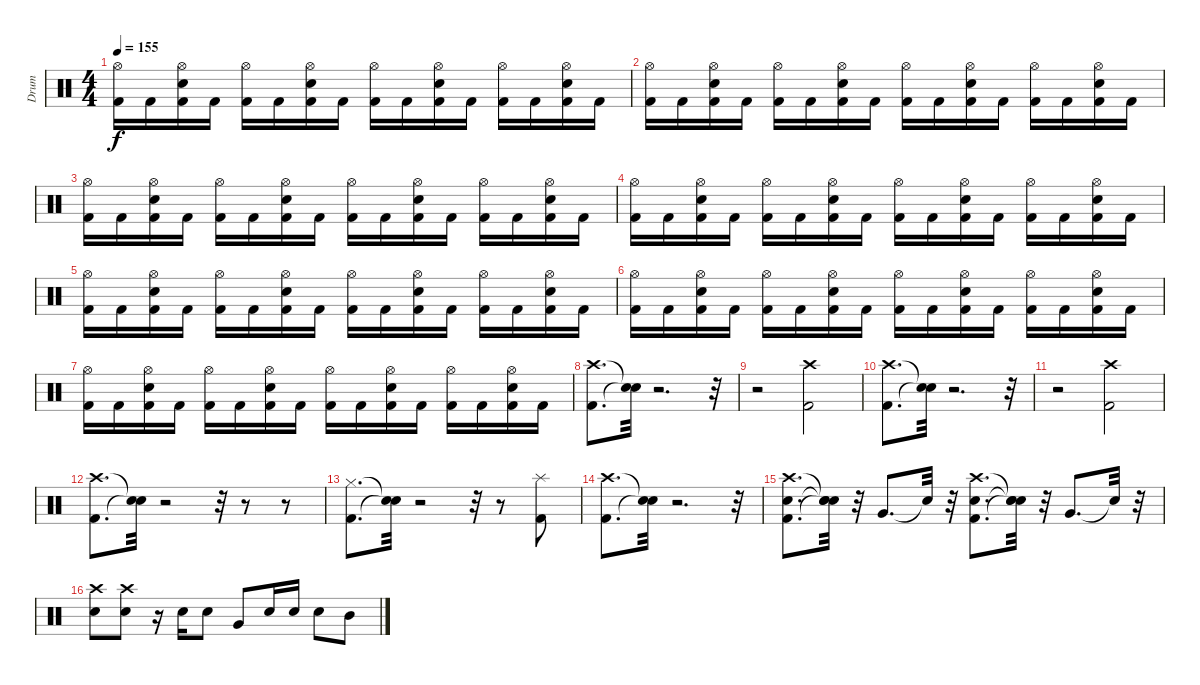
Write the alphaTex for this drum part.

\track ("Drum" "Drum") {instrument percussion}
\staff {score}
\articulation defaults
\ts (4 4)
\tempo 155
\clef neutral
\ks c
("Kick (hit) 2" "Hi-Hat (open)").16{dy f} "Kick (hit) 2".16 ("Kick (hit) 2" "Snare (hit) 2" "Hi-Hat (open)").16 "Kick (hit) 2".16 ("Kick (hit) 2" "Hi-Hat (open)").16 "Kick (hit) 2".16 ("Kick (hit) 2" "Snare (hit) 2" "Hi-Hat (open)").16 "Kick (hit) 2".16 ("Kick (hit) 2" "Hi-Hat (open)").16 "Kick (hit) 2".16 ("Kick (hit) 2" "Snare (hit) 2" "Hi-Hat (open)").16 "Kick (hit) 2".16 ("Kick (hit) 2" "Hi-Hat (open)").16 "Kick (hit) 2".16 ("Kick (hit) 2" "Snare (hit) 2" "Hi-Hat (open)").16 "Kick (hit) 2".16 |
("Kick (hit) 2" "Hi-Hat (open)").16 "Kick (hit) 2".16 ("Kick (hit) 2" "Snare (hit) 2" "Hi-Hat (open)").16 "Kick (hit) 2".16 ("Kick (hit) 2" "Hi-Hat (open)").16 "Kick (hit) 2".16 ("Kick (hit) 2" "Snare (hit) 2" "Hi-Hat (open)").16 "Kick (hit) 2".16 ("Kick (hit) 2" "Hi-Hat (open)").16 "Kick (hit) 2".16 ("Kick (hit) 2" "Snare (hit) 2" "Hi-Hat (open)").16 "Kick (hit) 2".16 ("Kick (hit) 2" "Hi-Hat (open)").16 "Kick (hit) 2".16 ("Kick (hit) 2" "Snare (hit) 2" "Hi-Hat (open)").16 "Kick (hit) 2".16 |
("Kick (hit) 2" "Hi-Hat (open)").16 "Kick (hit) 2".16 ("Kick (hit) 2" "Snare (hit) 2" "Hi-Hat (open)").16 "Kick (hit) 2".16 ("Kick (hit) 2" "Hi-Hat (open)").16 "Kick (hit) 2".16 ("Kick (hit) 2" "Snare (hit) 2" "Hi-Hat (open)").16 "Kick (hit) 2".16 ("Kick (hit) 2" "Hi-Hat (open)").16 "Kick (hit) 2".16 ("Kick (hit) 2" "Snare (hit) 2" "Hi-Hat (open)").16 "Kick (hit) 2".16 ("Kick (hit) 2" "Hi-Hat (open)").16 "Kick (hit) 2".16 ("Kick (hit) 2" "Snare (hit) 2" "Hi-Hat (open)").16 "Kick (hit) 2".16 |
("Kick (hit) 2" "Hi-Hat (open)").16 "Kick (hit) 2".16 ("Kick (hit) 2" "Snare (hit) 2" "Hi-Hat (open)").16 "Kick (hit) 2".16 ("Kick (hit) 2" "Hi-Hat (open)").16 "Kick (hit) 2".16 ("Kick (hit) 2" "Snare (hit) 2" "Hi-Hat (open)").16 "Kick (hit) 2".16 ("Kick (hit) 2" "Hi-Hat (open)").16 "Kick (hit) 2".16 ("Kick (hit) 2" "Snare (hit) 2" "Hi-Hat (open)").16 "Kick (hit) 2".16 ("Kick (hit) 2" "Hi-Hat (open)").16 "Kick (hit) 2".16 ("Kick (hit) 2" "Snare (hit) 2" "Hi-Hat (open)").16 "Kick (hit) 2".16 |
("Kick (hit) 2" "Hi-Hat (open)").16 "Kick (hit) 2".16 ("Kick (hit) 2" "Snare (hit) 2" "Hi-Hat (open)").16 "Kick (hit) 2".16 ("Kick (hit) 2" "Hi-Hat (open)").16 "Kick (hit) 2".16 ("Kick (hit) 2" "Snare (hit) 2" "Hi-Hat (open)").16 "Kick (hit) 2".16 ("Kick (hit) 2" "Hi-Hat (open)").16 "Kick (hit) 2".16 ("Kick (hit) 2" "Snare (hit) 2" "Hi-Hat (open)").16 "Kick (hit) 2".16 ("Kick (hit) 2" "Hi-Hat (open)").16 "Kick (hit) 2".16 ("Kick (hit) 2" "Snare (hit) 2" "Hi-Hat (open)").16 "Kick (hit) 2".16 |
("Kick (hit) 2" "Hi-Hat (open)").16 "Kick (hit) 2".16 ("Kick (hit) 2" "Snare (hit) 2" "Hi-Hat (open)").16 "Kick (hit) 2".16 ("Kick (hit) 2" "Hi-Hat (open)").16 "Kick (hit) 2".16 ("Kick (hit) 2" "Snare (hit) 2" "Hi-Hat (open)").16 "Kick (hit) 2".16 ("Kick (hit) 2" "Hi-Hat (open)").16 "Kick (hit) 2".16 ("Kick (hit) 2" "Snare (hit) 2" "Hi-Hat (open)").16 "Kick (hit) 2".16 ("Kick (hit) 2" "Hi-Hat (open)").16 "Kick (hit) 2".16 ("Kick (hit) 2" "Snare (hit) 2" "Hi-Hat (open)").16 "Kick (hit) 2".16 |
("Kick (hit) 2" "Hi-Hat (open)").16 "Kick (hit) 2".16 ("Kick (hit) 2" "Snare (hit) 2" "Hi-Hat (open)").16 "Kick (hit) 2".16 ("Kick (hit) 2" "Hi-Hat (open)").16 "Kick (hit) 2".16 ("Kick (hit) 2" "Snare (hit) 2" "Hi-Hat (open)").16 "Kick (hit) 2".16 ("Kick (hit) 2" "Hi-Hat (open)").16 "Kick (hit) 2".16 ("Kick (hit) 2" "Snare (hit) 2" "Hi-Hat (open)").16 "Kick (hit) 2".16 ("Kick (hit) 2" "Hi-Hat (open)").16 "Kick (hit) 2".16 ("Kick (hit) 2" "Snare (hit) 2" "Hi-Hat (open)").16 "Kick (hit) 2".16 |
("Kick (hit) 2" "Crash high (hit)").8{d} ("Snare (hit)"{t} "Snare (hit)"{t}).32 r.2{d} r.32 |
r.2 ("Kick (hit) 2" "Crash high (hit)").2 |
("Kick (hit) 2" "Crash high (hit)").8{d} ("Snare (hit)"{t} "Snare (hit)"{t}).32 r.2{d} r.32 |
r.2 ("Kick (hit) 2" "Crash high (hit)").2 |
("Kick (hit) 2" "Crash high (hit)").8{d} ("Snare (hit)"{t} "Snare (hit)"{t}).32 r.2 r.32 r.8 r.8 |
("Kick (hit) 2" "Hi-Hat (closed)").8{d} ("Snare (hit)"{t} "Snare (hit)"{t}).32 r.2 r.32 r.8 ("Kick (hit) 2" "Splash (hit)").8 |
("Kick (hit) 2" "Crash high (hit)").8{d} ("Snare (hit)"{t} "Snare (hit)"{t}).32 r.2{d} r.32 |
("Kick (hit) 2" "Snare (hit) 2" "Crash high (hit)").8{d} ("Snare (hit)"{t} "Snare (hit)"{t} "Snare (hit)"{t}).32 r.32 "Very Low Tom (hit)".8{d} "Snare (hit)"{t}.32 r.32 ("Snare (hit) 2" "Kick (hit) 2" "Crash high (hit)").8{d} ("Snare (hit)"{t} "Snare (hit)"{t} "Snare (hit)"{t}).32 r.32 "Very Low Tom (hit)".8{d} "Snare (hit)"{t}.32 r.32 |
("Snare (hit) 2" "Crash high (hit)").8 ("Snare (hit) 2" "Crash high (hit)").8 r.16 "Snare (hit) 2".16 "Snare (hit) 2".8 "Very Low Tom (hit)".8 "Snare (hit) 2".16 "Snare (hit) 2".16 "Snare (hit) 2".8 "Mid Tom (hit)".8
